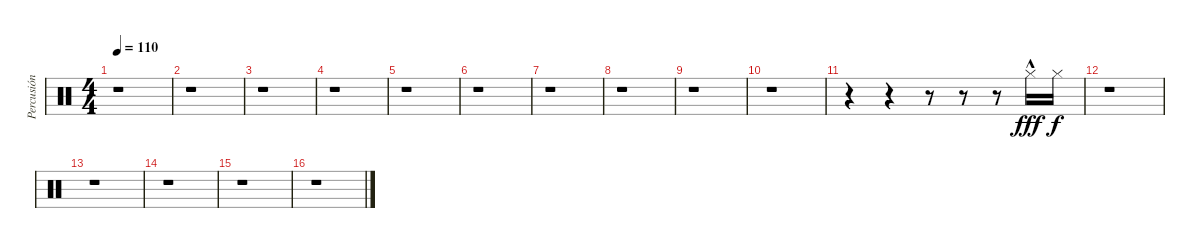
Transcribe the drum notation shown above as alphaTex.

\track ("Percusión" "Percusión") {instrument percussion}
\staff {score}
\articulation defaults
\ts (4 4)
\tempo 110
\clef neutral
\ks c
r.1{dy fff} |
r.1 |
r.1 |
r.1 |
r.1 |
r.1 |
r.1 |
r.1 |
r.1 |
r.1 |
r.4 r.4 r.8 r.8 r.8 "Hi-Hat (closed)"{hac}.16 "Hi-Hat (closed)".16{dy f} |
r.1 |
r.1 |
r.1 |
r.1 |
r.1
